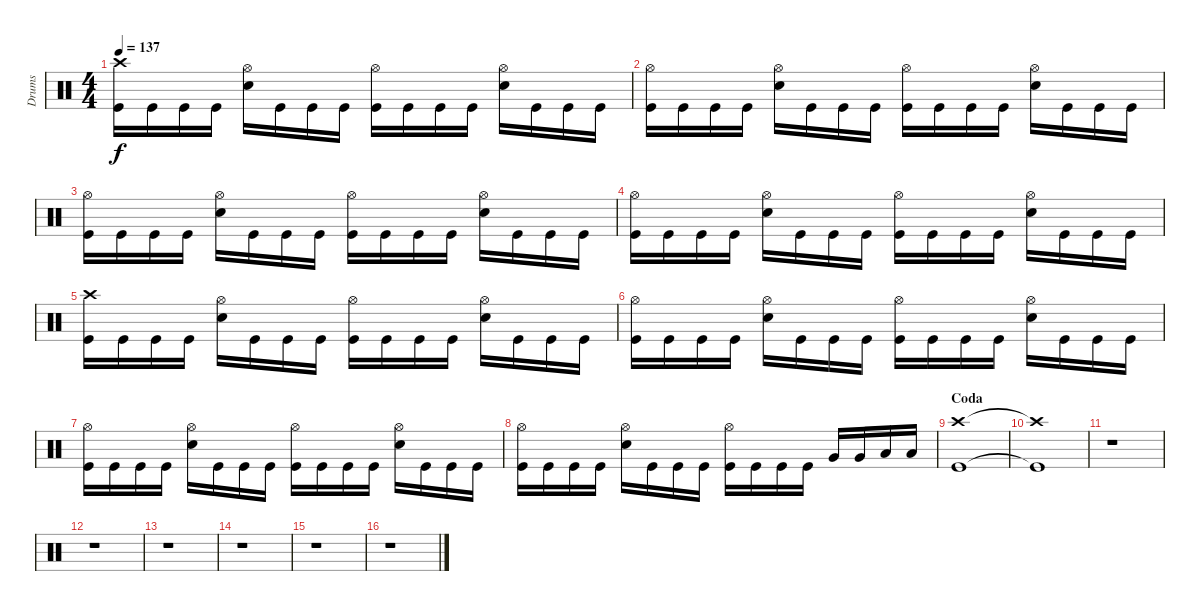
\track ("Drums" "Drums") {instrument percussion}
\staff {score}
\articulation defaults
\ts (4 4)
\tempo 137
\clef neutral
\ks c
("Crash high (hit)" "Kick (hit)").16{dy f} "Kick (hit)".16 "Kick (hit)".16 "Kick (hit)".16 ("Hi-Hat (open)" "Electric Snare (hit)").16 "Kick (hit)".16 "Kick (hit)".16 "Kick (hit)".16 ("Hi-Hat (open)" "Kick (hit)").16 "Kick (hit)".16 "Kick (hit)".16 "Kick (hit)".16 ("Hi-Hat (open)" "Electric Snare (hit)").16 "Kick (hit)".16 "Kick (hit)".16 "Kick (hit)".16 |
("Hi-Hat (open)" "Kick (hit)").16 "Kick (hit)".16 "Kick (hit)".16 "Kick (hit)".16 ("Hi-Hat (open)" "Electric Snare (hit)").16 "Kick (hit)".16 "Kick (hit)".16 "Kick (hit)".16 ("Hi-Hat (open)" "Kick (hit)").16 "Kick (hit)".16 "Kick (hit)".16 "Kick (hit)".16 ("Hi-Hat (open)" "Electric Snare (hit)").16 "Kick (hit)".16 "Kick (hit)".16 "Kick (hit)".16 |
("Hi-Hat (open)" "Kick (hit)").16 "Kick (hit)".16 "Kick (hit)".16 "Kick (hit)".16 ("Hi-Hat (open)" "Electric Snare (hit)").16 "Kick (hit)".16 "Kick (hit)".16 "Kick (hit)".16 ("Hi-Hat (open)" "Kick (hit)").16 "Kick (hit)".16 "Kick (hit)".16 "Kick (hit)".16 ("Hi-Hat (open)" "Electric Snare (hit)").16 "Kick (hit)".16 "Kick (hit)".16 "Kick (hit)".16 |
("Hi-Hat (open)" "Kick (hit)").16 "Kick (hit)".16 "Kick (hit)".16 "Kick (hit)".16 ("Hi-Hat (open)" "Electric Snare (hit)").16 "Kick (hit)".16 "Kick (hit)".16 "Kick (hit)".16 ("Hi-Hat (open)" "Kick (hit)").16 "Kick (hit)".16 "Kick (hit)".16 "Kick (hit)".16 ("Hi-Hat (open)" "Electric Snare (hit)").16 "Kick (hit)".16 "Kick (hit)".16 "Kick (hit)".16 |
("Crash high (hit)" "Kick (hit)").16 "Kick (hit)".16 "Kick (hit)".16 "Kick (hit)".16 ("Hi-Hat (open)" "Electric Snare (hit)").16 "Kick (hit)".16 "Kick (hit)".16 "Kick (hit)".16 ("Hi-Hat (open)" "Kick (hit)").16 "Kick (hit)".16 "Kick (hit)".16 "Kick (hit)".16 ("Hi-Hat (open)" "Electric Snare (hit)").16 "Kick (hit)".16 "Kick (hit)".16 "Kick (hit)".16 |
("Hi-Hat (open)" "Kick (hit)").16 "Kick (hit)".16 "Kick (hit)".16 "Kick (hit)".16 ("Hi-Hat (open)" "Electric Snare (hit)").16 "Kick (hit)".16 "Kick (hit)".16 "Kick (hit)".16 ("Hi-Hat (open)" "Kick (hit)").16 "Kick (hit)".16 "Kick (hit)".16 "Kick (hit)".16 ("Hi-Hat (open)" "Electric Snare (hit)").16 "Kick (hit)".16 "Kick (hit)".16 "Kick (hit)".16 |
("Hi-Hat (open)" "Kick (hit)").16 "Kick (hit)".16 "Kick (hit)".16 "Kick (hit)".16 ("Hi-Hat (open)" "Electric Snare (hit)").16 "Kick (hit)".16 "Kick (hit)".16 "Kick (hit)".16 ("Hi-Hat (open)" "Kick (hit)").16 "Kick (hit)".16 "Kick (hit)".16 "Kick (hit)".16 ("Hi-Hat (open)" "Electric Snare (hit)").16 "Kick (hit)".16 "Kick (hit)".16 "Kick (hit)".16 |
("Hi-Hat (open)" "Kick (hit)").16 "Kick (hit)".16 "Kick (hit)".16 "Kick (hit)".16 ("Hi-Hat (open)" "Electric Snare (hit)").16 "Kick (hit)".16 "Kick (hit)".16 "Kick (hit)".16 ("Hi-Hat (open)" "Kick (hit)").16 "Kick (hit)".16 "Kick (hit)".16 "Kick (hit)".16 "Very Low Tom (hit)".16 "Very Low Tom (hit)".16 "Low Floor Tom (hit)".16 "Low Floor Tom (hit)".16 |
\section ("" "Coda")
("Crash high (hit)" "Kick (hit)").1 |
("Crash high (hit)"{t} "Kick (hit)"{t}).1 |
r.1 |
r.1 |
r.1 |
r.1 |
r.1 |
r.1
